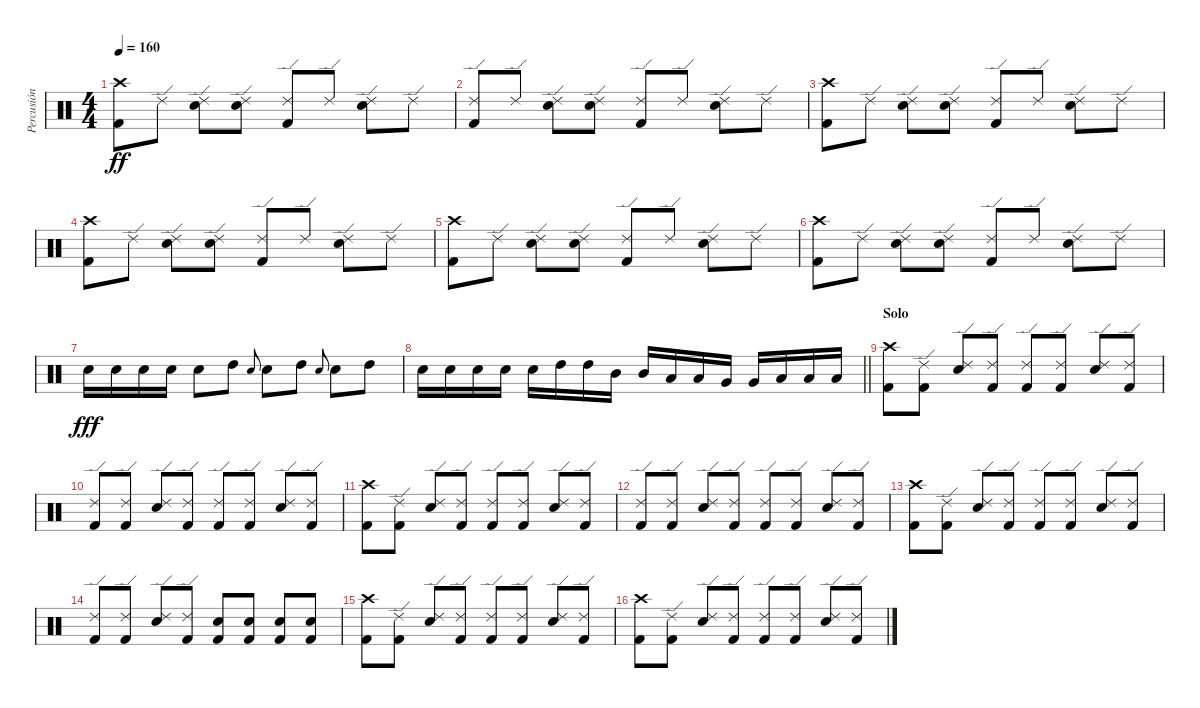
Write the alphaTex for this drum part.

\track ("Percusión" "Percusión") {instrument percussion}
\staff {score}
\articulation defaults
\ts (4 4)
\tempo 160
\clef neutral
\ks c
("Crash high (hit)" "Kick (hit) 2").8{dy ff} "Ride (edge) 2".8 ("Ride (edge) 2" "Electric Snare (hit)").8 ("Ride (edge) 2" "Electric Snare (hit)").8 ("Ride (edge) 2" "Kick (hit) 2").8 "Ride (edge) 2".8 ("Ride (edge) 2" "Electric Snare (hit)").8 "Ride (edge) 2".8 |
("Ride (edge) 2" "Kick (hit) 2").8 "Ride (edge) 2".8 ("Ride (edge) 2" "Electric Snare (hit)").8 ("Ride (edge) 2" "Electric Snare (hit)").8 ("Ride (edge) 2" "Kick (hit) 2").8 "Ride (edge) 2".8 ("Ride (edge) 2" "Electric Snare (hit)").8 "Ride (edge) 2".8 |
("Crash high (hit)" "Kick (hit) 2").8 "Ride (edge) 2".8 ("Ride (edge) 2" "Electric Snare (hit)").8 ("Ride (edge) 2" "Electric Snare (hit)").8 ("Ride (edge) 2" "Kick (hit) 2").8 "Ride (edge) 2".8 ("Ride (edge) 2" "Electric Snare (hit)").8 "Ride (edge) 2".8 |
("Crash high (hit)" "Kick (hit) 2").8 "Ride (edge) 2".8 ("Ride (edge) 2" "Electric Snare (hit)").8 ("Ride (edge) 2" "Electric Snare (hit)").8 ("Ride (edge) 2" "Kick (hit) 2").8 "Ride (edge) 2".8 ("Ride (edge) 2" "Electric Snare (hit)").8 "Ride (edge) 2".8 |
("Crash high (hit)" "Kick (hit) 2").8 "Ride (edge) 2".8 ("Ride (edge) 2" "Electric Snare (hit)").8 ("Ride (edge) 2" "Electric Snare (hit)").8 ("Ride (edge) 2" "Kick (hit) 2").8 "Ride (edge) 2".8 ("Ride (edge) 2" "Electric Snare (hit)").8 "Ride (edge) 2".8 |
("Crash high (hit)" "Kick (hit) 2").8 "Ride (edge) 2".8 ("Ride (edge) 2" "Electric Snare (hit)").8 ("Ride (edge) 2" "Electric Snare (hit)").8 ("Ride (edge) 2" "Kick (hit) 2").8 "Ride (edge) 2".8 ("Ride (edge) 2" "Electric Snare (hit)").8 "Ride (edge) 2".8 |
"Electric Snare (hit)".16{dy fff} "Electric Snare (hit)".16 "Electric Snare (hit)".16 "Electric Snare (hit)".16 "Electric Snare (hit)".8 "High Tom (hit)".8 "Electric Snare (hit)".8{gr onbeat} "Electric Snare (hit)".8 "High Tom (hit)".8 "Electric Snare (hit)".8{gr onbeat} "Electric Snare (hit)".8 "High Tom (hit)".8 |
\barLineRight lightlight "Electric Snare (hit)".16 "Electric Snare (hit)".16 "Electric Snare (hit)".16 "Electric Snare (hit)".16 "Electric Snare (hit)".16 "High Tom (hit)".16 "High Tom (hit)".16 "Mid Tom (hit)".16 "Mid Tom (hit)".16 "Low Tom (hit)".16 "Low Tom (hit)".16 "Very Low Tom (hit)".16 "Very Low Tom (hit)".16 "Low Floor Tom (hit)".16 "Low Floor Tom (hit)".16 "Low Floor Tom (hit)".16
|
\section ("" "Solo")
("Crash high (hit)" "Kick (hit) 2").8 ("Ride (edge) 2" "Kick (hit) 2").8 ("Ride (edge) 2" "Electric Snare (hit)").8 ("Ride (edge) 2" "Kick (hit) 2").8 ("Ride (edge) 2" "Kick (hit) 2").8 ("Ride (edge) 2" "Kick (hit) 2").8 ("Ride (edge) 2" "Electric Snare (hit)").8 ("Ride (edge) 2" "Kick (hit) 2").8 |
("Ride (edge) 2" "Kick (hit) 2").8 ("Ride (edge) 2" "Kick (hit) 2").8 ("Ride (edge) 2" "Electric Snare (hit)").8 ("Ride (edge) 2" "Kick (hit) 2").8 ("Ride (edge) 2" "Kick (hit) 2").8 ("Ride (edge) 2" "Kick (hit) 2").8 ("Ride (edge) 2" "Electric Snare (hit)").8 ("Ride (edge) 2" "Kick (hit) 2").8 |
("Crash high (hit)" "Kick (hit) 2").8 ("Ride (edge) 2" "Kick (hit) 2").8 ("Ride (edge) 2" "Electric Snare (hit)").8 ("Ride (edge) 2" "Kick (hit) 2").8 ("Ride (edge) 2" "Kick (hit) 2").8 ("Ride (edge) 2" "Kick (hit) 2").8 ("Ride (edge) 2" "Electric Snare (hit)").8 ("Ride (edge) 2" "Kick (hit) 2").8 |
("Ride (edge) 2" "Kick (hit) 2").8 ("Ride (edge) 2" "Kick (hit) 2").8 ("Ride (edge) 2" "Electric Snare (hit)").8 ("Ride (edge) 2" "Kick (hit) 2").8 ("Ride (edge) 2" "Kick (hit) 2").8 ("Ride (edge) 2" "Kick (hit) 2").8 ("Ride (edge) 2" "Electric Snare (hit)").8 ("Ride (edge) 2" "Kick (hit) 2").8 |
("Crash high (hit)" "Kick (hit) 2").8 ("Ride (edge) 2" "Kick (hit) 2").8 ("Ride (edge) 2" "Electric Snare (hit)").8 ("Ride (edge) 2" "Kick (hit) 2").8 ("Ride (edge) 2" "Kick (hit) 2").8 ("Ride (edge) 2" "Kick (hit) 2").8 ("Ride (edge) 2" "Electric Snare (hit)").8 ("Ride (edge) 2" "Kick (hit) 2").8 |
("Ride (edge) 2" "Kick (hit) 2").8 ("Ride (edge) 2" "Kick (hit) 2").8 ("Ride (edge) 2" "Electric Snare (hit)").8 ("Ride (edge) 2" "Kick (hit) 2").8 ("Electric Snare (hit)" "Kick (hit) 2").8 ("Electric Snare (hit)" "Kick (hit) 2").8 ("Electric Snare (hit)" "Kick (hit) 2").8 ("Electric Snare (hit)" "Kick (hit) 2").8 |
("Crash high (hit)" "Kick (hit) 2").8 ("Ride (edge) 2" "Kick (hit) 2").8 ("Ride (edge) 2" "Electric Snare (hit)").8 ("Ride (edge) 2" "Kick (hit) 2").8 ("Ride (edge) 2" "Kick (hit) 2").8 ("Ride (edge) 2" "Kick (hit) 2").8 ("Ride (edge) 2" "Electric Snare (hit)").8 ("Ride (edge) 2" "Kick (hit) 2").8 |
("Crash high (hit)" "Kick (hit) 2").8 ("Ride (edge) 2" "Kick (hit) 2").8 ("Ride (edge) 2" "Electric Snare (hit)").8 ("Ride (edge) 2" "Kick (hit) 2").8 ("Ride (edge) 2" "Kick (hit) 2").8 ("Ride (edge) 2" "Kick (hit) 2").8 ("Ride (edge) 2" "Electric Snare (hit)").8 ("Ride (edge) 2" "Kick (hit) 2").8
